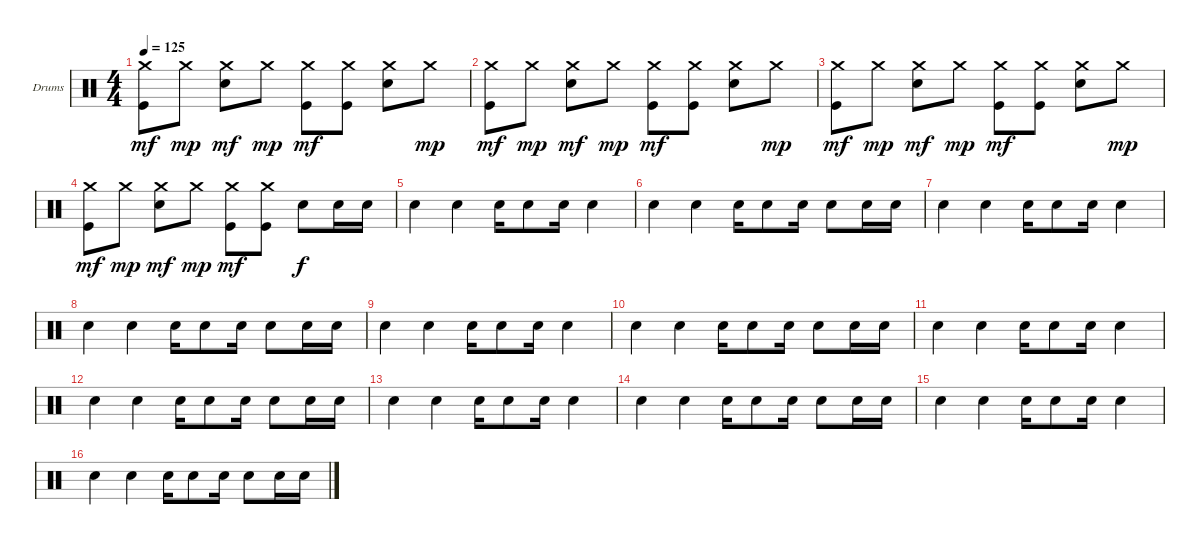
\bracketExtendMode groupsimilarinstruments
\firstSystemTrackNameOrientation horizontal
\otherSystemsTrackNameOrientation horizontal
\track ("Rian Dawson" "Drums") {instrument percussion}
\staff {score}
\articulation defaults
\ts (4 4)
\tempo 125
\clef neutral
\ks c
("Crash medium (hit)" "Kick (hit)").8{dy mf} "Crash medium (hit)".8{dy mp} ("Crash medium (hit)" "Snare (hit) 2").8{dy mf} "Crash medium (hit)".8{dy mp} ("Crash medium (hit)" "Kick (hit)").8{dy mf} ("Crash medium (hit)" "Kick (hit)").8 ("Crash medium (hit)" "Snare (hit) 2").8 "Crash medium (hit)".8{dy mp} |
("Crash medium (hit)" "Kick (hit)").8{dy mf} "Crash medium (hit)".8{dy mp} ("Crash medium (hit)" "Snare (hit) 2").8{dy mf} "Crash medium (hit)".8{dy mp} ("Crash medium (hit)" "Kick (hit)").8{dy mf} ("Crash medium (hit)" "Kick (hit)").8 ("Crash medium (hit)" "Snare (hit) 2").8 "Crash medium (hit)".8{dy mp} |
("Crash medium (hit)" "Kick (hit)").8{dy mf} "Crash medium (hit)".8{dy mp} ("Crash medium (hit)" "Snare (hit) 2").8{dy mf} "Crash medium (hit)".8{dy mp} ("Crash medium (hit)" "Kick (hit)").8{dy mf} ("Crash medium (hit)" "Kick (hit)").8 ("Crash medium (hit)" "Snare (hit) 2").8 "Crash medium (hit)".8{dy mp} |
("Crash medium (hit)" "Kick (hit)").8{dy mf} "Crash medium (hit)".8{dy mp} ("Crash medium (hit)" "Snare (hit) 2").8{dy mf} "Crash medium (hit)".8{dy mp} ("Crash medium (hit)" "Kick (hit)").8{dy mf} ("Crash medium (hit)" "Kick (hit)").8 "Snare (hit) 2".8{dy f} "Snare (hit) 2".16 "Snare (hit) 2".16 |
"Snare (hit) 2".4 "Snare (hit) 2".4 "Snare (hit) 2".16 "Snare (hit) 2".8 "Snare (hit) 2".16 "Snare (hit) 2".4 |
"Snare (hit) 2".4 "Snare (hit) 2".4 "Snare (hit) 2".16 "Snare (hit) 2".8 "Snare (hit) 2".16 "Snare (hit) 2".8 "Snare (hit) 2".16 "Snare (hit) 2".16 |
"Snare (hit) 2".4 "Snare (hit) 2".4 "Snare (hit) 2".16 "Snare (hit) 2".8 "Snare (hit) 2".16 "Snare (hit) 2".4 |
"Snare (hit) 2".4 "Snare (hit) 2".4 "Snare (hit) 2".16 "Snare (hit) 2".8 "Snare (hit) 2".16 "Snare (hit) 2".8 "Snare (hit) 2".16 "Snare (hit) 2".16 |
"Snare (hit) 2".4 "Snare (hit) 2".4 "Snare (hit) 2".16 "Snare (hit) 2".8 "Snare (hit) 2".16 "Snare (hit) 2".4 |
"Snare (hit) 2".4 "Snare (hit) 2".4 "Snare (hit) 2".16 "Snare (hit) 2".8 "Snare (hit) 2".16 "Snare (hit) 2".8 "Snare (hit) 2".16 "Snare (hit) 2".16 |
"Snare (hit) 2".4 "Snare (hit) 2".4 "Snare (hit) 2".16 "Snare (hit) 2".8 "Snare (hit) 2".16 "Snare (hit) 2".4 |
"Snare (hit) 2".4 "Snare (hit) 2".4 "Snare (hit) 2".16 "Snare (hit) 2".8 "Snare (hit) 2".16 "Snare (hit) 2".8 "Snare (hit) 2".16 "Snare (hit) 2".16 |
"Snare (hit) 2".4 "Snare (hit) 2".4 "Snare (hit) 2".16 "Snare (hit) 2".8 "Snare (hit) 2".16 "Snare (hit) 2".4 |
"Snare (hit) 2".4 "Snare (hit) 2".4 "Snare (hit) 2".16 "Snare (hit) 2".8 "Snare (hit) 2".16 "Snare (hit) 2".8 "Snare (hit) 2".16 "Snare (hit) 2".16 |
"Snare (hit) 2".4 "Snare (hit) 2".4 "Snare (hit) 2".16 "Snare (hit) 2".8 "Snare (hit) 2".16 "Snare (hit) 2".4 |
"Snare (hit) 2".4 "Snare (hit) 2".4 "Snare (hit) 2".16 "Snare (hit) 2".8 "Snare (hit) 2".16 "Snare (hit) 2".8 "Snare (hit) 2".16 "Snare (hit) 2".16
